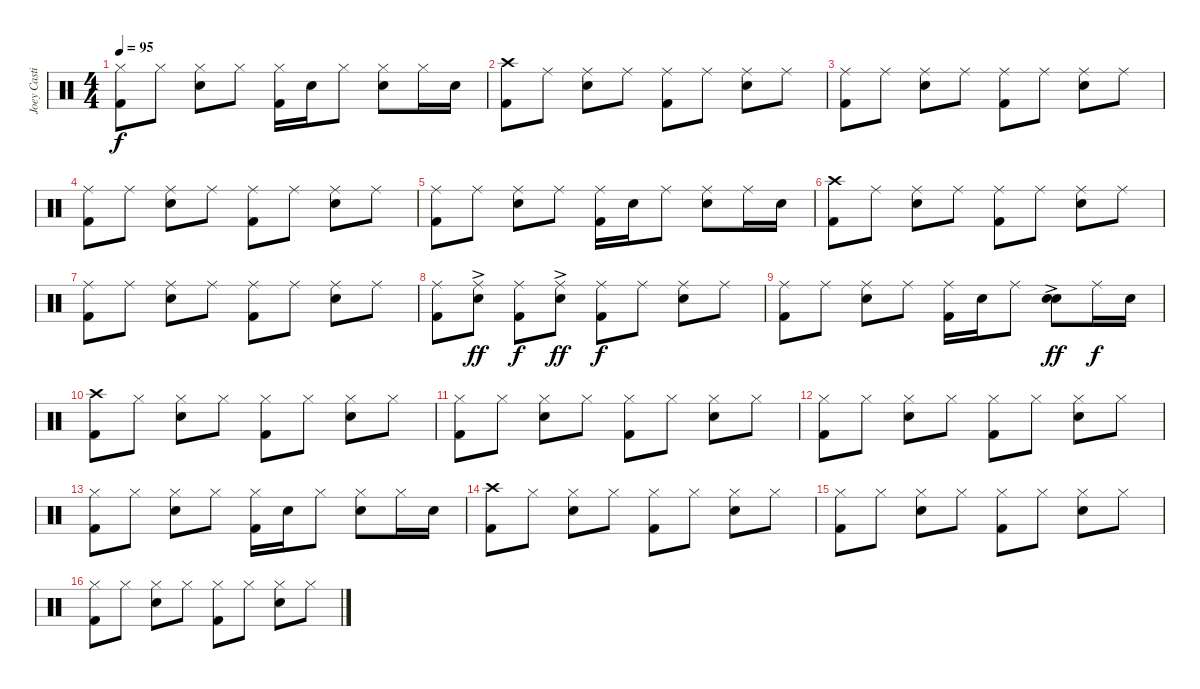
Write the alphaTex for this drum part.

\track ("Joey Castillo" "Joey Casti") {instrument percussion}
\staff {score}
\articulation defaults
\ts (4 4)
\tempo 95
\clef neutral
\ks c
("Hi-Hat (closed)" "Kick (hit) 2").8{dy f} "Hi-Hat (closed)".8 ("Hi-Hat (closed)" "Snare (hit) 2").8 "Hi-Hat (closed)".8 ("Hi-Hat (closed)" "Kick (hit) 2").16 "Snare (hit) 2".16 "Hi-Hat (closed)".8 ("Hi-Hat (closed)" "Snare (hit) 2").8 "Hi-Hat (closed)".16 "Snare (hit) 2".16 |
("Crash high (hit)" "Kick (hit) 2").8 "Ride (middle)".8 ("Ride (middle)" "Snare (hit) 2").8 "Ride (middle)".8 ("Ride (middle)" "Kick (hit) 2").8 "Ride (middle)".8 ("Ride (middle)" "Snare (hit) 2").8 "Ride (middle)".8 |
("Ride (middle)" "Kick (hit) 2").8 "Ride (middle)".8 ("Ride (middle)" "Snare (hit) 2").8 "Ride (middle)".8 ("Ride (middle)" "Kick (hit) 2").8 "Ride (middle)".8 ("Ride (middle)" "Snare (hit) 2").8 "Ride (middle)".8 |
("Ride (middle)" "Kick (hit) 2").8 "Ride (middle)".8 ("Ride (middle)" "Snare (hit) 2").8 "Ride (middle)".8 ("Ride (middle)" "Kick (hit) 2").8 "Ride (middle)".8 ("Ride (middle)" "Snare (hit) 2").8 "Ride (middle)".8 |
("Ride (middle)" "Kick (hit) 2").8 "Ride (middle)".8 ("Ride (middle)" "Snare (hit) 2").8 "Ride (middle)".8 ("Ride (middle)" "Kick (hit) 2").16 "Snare (hit) 2".16 "Ride (middle)".8 ("Ride (middle)" "Snare (hit) 2").8 "Ride (middle)".16 "Snare (hit) 2".16 |
("Crash high (hit)" "Kick (hit) 2").8 "Ride (middle)".8 ("Ride (middle)" "Snare (hit) 2").8 "Ride (middle)".8 ("Ride (middle)" "Kick (hit) 2").8 "Ride (middle)".8 ("Ride (middle)" "Snare (hit) 2").8 "Ride (middle)".8 |
("Ride (middle)" "Kick (hit) 2").8 "Ride (middle)".8 ("Ride (middle)" "Snare (hit) 2").8 "Ride (middle)".8 ("Ride (middle)" "Kick (hit) 2").8 "Ride (middle)".8 ("Ride (middle)" "Snare (hit) 2").8 "Ride (middle)".8 |
("Ride (middle)" "Kick (hit) 2").8 ("Ride (middle)" "Snare (hit) 2"{ac}).8{dy ff} ("Ride (middle)" "Kick (hit) 2").8{dy f} ("Ride (middle)" "Snare (hit) 2"{ac}).8{dy ff} ("Ride (middle)" "Kick (hit) 2").8{dy f} "Ride (middle)".8 ("Ride (middle)" "Snare (hit) 2").8 "Ride (middle)".8 |
("Ride (middle)" "Kick (hit) 2").8 "Ride (middle)".8 ("Ride (middle)" "Snare (hit) 2").8 "Ride (middle)".8 ("Ride (middle)" "Kick (hit) 2").16 "Snare (hit) 2".16 "Ride (middle)".8 ("Snare (hit) 2"{ac} "Snare (hit) 2"{ac}).8{bd 240 dy ff} "Ride (middle)".16{dy f} "Snare (hit) 2".16 |
("Crash high (hit)" "Kick (hit) 2").8 "Hi-Hat (closed)".8 ("Hi-Hat (closed)" "Snare (hit) 2").8 "Hi-Hat (closed)".8 ("Hi-Hat (closed)" "Kick (hit) 2").8 "Hi-Hat (closed)".8 ("Hi-Hat (closed)" "Snare (hit) 2").8 "Hi-Hat (closed)".8 |
("Hi-Hat (closed)" "Kick (hit) 2").8 "Hi-Hat (closed)".8 ("Hi-Hat (closed)" "Snare (hit) 2").8 "Hi-Hat (closed)".8 ("Hi-Hat (closed)" "Kick (hit) 2").8 "Hi-Hat (closed)".8 ("Hi-Hat (closed)" "Snare (hit) 2").8 "Hi-Hat (closed)".8 |
("Hi-Hat (closed)" "Kick (hit) 2").8 "Hi-Hat (closed)".8 ("Hi-Hat (closed)" "Snare (hit) 2").8 "Hi-Hat (closed)".8 ("Hi-Hat (closed)" "Kick (hit) 2").8 "Hi-Hat (closed)".8 ("Hi-Hat (closed)" "Snare (hit) 2").8 "Hi-Hat (closed)".8 |
("Hi-Hat (closed)" "Kick (hit) 2").8 "Hi-Hat (closed)".8 ("Hi-Hat (closed)" "Snare (hit) 2").8 "Hi-Hat (closed)".8 ("Hi-Hat (closed)" "Kick (hit) 2").16 "Snare (hit) 2".16 "Hi-Hat (closed)".8 ("Hi-Hat (closed)" "Snare (hit) 2").8 "Hi-Hat (closed)".16 "Snare (hit) 2".16 |
("Crash high (hit)" "Kick (hit) 2").8 "Hi-Hat (closed)".8 ("Hi-Hat (closed)" "Snare (hit) 2").8 "Hi-Hat (closed)".8 ("Hi-Hat (closed)" "Kick (hit) 2").8 "Hi-Hat (closed)".8 ("Hi-Hat (closed)" "Snare (hit) 2").8 "Hi-Hat (closed)".8 |
("Hi-Hat (closed)" "Kick (hit) 2").8 "Hi-Hat (closed)".8 ("Hi-Hat (closed)" "Snare (hit) 2").8 "Hi-Hat (closed)".8 ("Hi-Hat (closed)" "Kick (hit) 2").8 "Hi-Hat (closed)".8 ("Hi-Hat (closed)" "Snare (hit) 2").8 "Hi-Hat (closed)".8 |
("Hi-Hat (closed)" "Kick (hit) 2").8 "Hi-Hat (closed)".8 ("Hi-Hat (closed)" "Snare (hit) 2").8 "Hi-Hat (closed)".8 ("Hi-Hat (closed)" "Kick (hit) 2").8 "Hi-Hat (closed)".8 ("Hi-Hat (closed)" "Snare (hit) 2").8 "Hi-Hat (closed)".8
